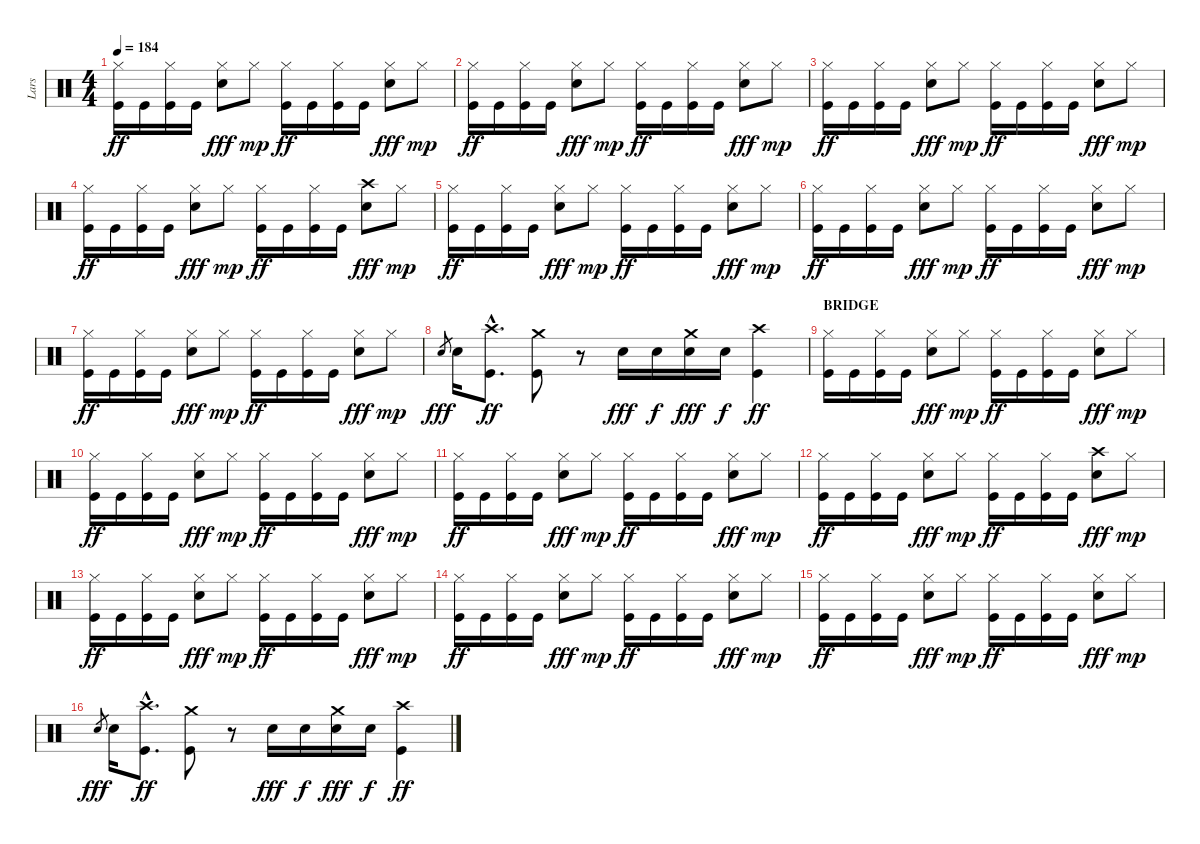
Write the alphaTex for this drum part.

\track ("Lars" "Lars") {instrument percussion}
\staff {score}
\articulation defaults
\ts (4 4)
\tempo 184
\clef neutral
\ks c
("Hi-Hat (closed)" "Kick (hit)").16{dy ff} "Kick (hit)".16 ("Hi-Hat (closed)" "Kick (hit)").16 "Kick (hit)".16 ("Hi-Hat (closed)" "Electric Snare (hit)").8{dy fff} "Hi-Hat (closed)".8{dy mp} ("Hi-Hat (closed)" "Kick (hit)").16{dy ff} "Kick (hit)".16 ("Hi-Hat (closed)" "Kick (hit)").16 "Kick (hit)".16 ("Hi-Hat (closed)" "Electric Snare (hit)").8{dy fff} "Hi-Hat (closed)".8{dy mp} |
("Hi-Hat (closed)" "Kick (hit)").16{dy ff} "Kick (hit)".16 ("Hi-Hat (closed)" "Kick (hit)").16 "Kick (hit)".16 ("Hi-Hat (closed)" "Electric Snare (hit)").8{dy fff} "Hi-Hat (closed)".8{dy mp} ("Hi-Hat (closed)" "Kick (hit)").16{dy ff} "Kick (hit)".16 ("Hi-Hat (closed)" "Kick (hit)").16 "Kick (hit)".16 ("Hi-Hat (closed)" "Electric Snare (hit)").8{dy fff} "Hi-Hat (closed)".8{dy mp} |
("Hi-Hat (closed)" "Kick (hit)").16{dy ff} "Kick (hit)".16 ("Hi-Hat (closed)" "Kick (hit)").16 "Kick (hit)".16 ("Hi-Hat (closed)" "Electric Snare (hit)").8{dy fff} "Hi-Hat (closed)".8{dy mp} ("Hi-Hat (closed)" "Kick (hit)").16{dy ff} "Kick (hit)".16 ("Hi-Hat (closed)" "Kick (hit)").16 "Kick (hit)".16 ("Hi-Hat (closed)" "Electric Snare (hit)").8{dy fff} "Hi-Hat (closed)".8{dy mp} |
("Hi-Hat (closed)" "Kick (hit)").16{dy ff} "Kick (hit)".16 ("Hi-Hat (closed)" "Kick (hit)").16 "Kick (hit)".16 ("Hi-Hat (closed)" "Electric Snare (hit)").8{dy fff} "Hi-Hat (closed)".8{dy mp} ("Hi-Hat (closed)" "Kick (hit)").16{dy ff} "Kick (hit)".16 ("Hi-Hat (closed)" "Kick (hit)").16 "Kick (hit)".16 ("Crash high (hit)" "Electric Snare (hit)").8{dy fff} "Hi-Hat (closed)".8{dy mp} |
("Hi-Hat (closed)" "Kick (hit)").16{dy ff} "Kick (hit)".16 ("Hi-Hat (closed)" "Kick (hit)").16 "Kick (hit)".16 ("Hi-Hat (closed)" "Electric Snare (hit)").8{dy fff} "Hi-Hat (closed)".8{dy mp} ("Hi-Hat (closed)" "Kick (hit)").16{dy ff} "Kick (hit)".16 ("Hi-Hat (closed)" "Kick (hit)").16 "Kick (hit)".16 ("Hi-Hat (closed)" "Electric Snare (hit)").8{dy fff} "Hi-Hat (closed)".8{dy mp} |
("Hi-Hat (closed)" "Kick (hit)").16{dy ff} "Kick (hit)".16 ("Hi-Hat (closed)" "Kick (hit)").16 "Kick (hit)".16 ("Hi-Hat (closed)" "Electric Snare (hit)").8{dy fff} "Hi-Hat (closed)".8{dy mp} ("Hi-Hat (closed)" "Kick (hit)").16{dy ff} "Kick (hit)".16 ("Hi-Hat (closed)" "Kick (hit)").16 "Kick (hit)".16 ("Hi-Hat (closed)" "Electric Snare (hit)").8{dy fff} "Hi-Hat (closed)".8{dy mp} |
("Hi-Hat (closed)" "Kick (hit)").16{dy ff} "Kick (hit)".16 ("Hi-Hat (closed)" "Kick (hit)").16 "Kick (hit)".16 ("Hi-Hat (closed)" "Electric Snare (hit)").8{dy fff} "Hi-Hat (closed)".8{dy mp} ("Hi-Hat (closed)" "Kick (hit)").16{dy ff} "Kick (hit)".16 ("Hi-Hat (closed)" "Kick (hit)").16 "Kick (hit)".16 ("Hi-Hat (closed)" "Electric Snare (hit)").8{dy fff} "Hi-Hat (closed)".8{dy mp} |
"Electric Snare (hit)".8{gr dy fff} "Electric Snare (hit)".16 ("Crash high (hit)"{hac} "Kick (hit)"{hac}).8{d dy ff} ("Crash medium (hit)" "Kick (hit)").8 r.8 "Electric Snare (hit)".16{dy fff} "Electric Snare (hit)".16{dy f} ("Crash medium (hit)" "Electric Snare (hit)").16{dy fff} "Electric Snare (hit)".16{dy f} ("Crash high (hit)" "Kick (hit)").4{dy ff} |
\section ("" "BRIDGE")
("Hi-Hat (closed)" "Kick (hit)").16 "Kick (hit)".16 ("Hi-Hat (closed)" "Kick (hit)").16 "Kick (hit)".16 ("Hi-Hat (closed)" "Electric Snare (hit)").8{dy fff} "Hi-Hat (closed)".8{dy mp} ("Hi-Hat (closed)" "Kick (hit)").16{dy ff} "Kick (hit)".16 ("Hi-Hat (closed)" "Kick (hit)").16 "Kick (hit)".16 ("Hi-Hat (closed)" "Electric Snare (hit)").8{dy fff} "Hi-Hat (closed)".8{dy mp} |
("Hi-Hat (closed)" "Kick (hit)").16{dy ff} "Kick (hit)".16 ("Hi-Hat (closed)" "Kick (hit)").16 "Kick (hit)".16 ("Hi-Hat (closed)" "Electric Snare (hit)").8{dy fff} "Hi-Hat (closed)".8{dy mp} ("Hi-Hat (closed)" "Kick (hit)").16{dy ff} "Kick (hit)".16 ("Hi-Hat (closed)" "Kick (hit)").16 "Kick (hit)".16 ("Hi-Hat (closed)" "Electric Snare (hit)").8{dy fff} "Hi-Hat (closed)".8{dy mp} |
("Hi-Hat (closed)" "Kick (hit)").16{dy ff} "Kick (hit)".16 ("Hi-Hat (closed)" "Kick (hit)").16 "Kick (hit)".16 ("Hi-Hat (closed)" "Electric Snare (hit)").8{dy fff} "Hi-Hat (closed)".8{dy mp} ("Hi-Hat (closed)" "Kick (hit)").16{dy ff} "Kick (hit)".16 ("Hi-Hat (closed)" "Kick (hit)").16 "Kick (hit)".16 ("Hi-Hat (closed)" "Electric Snare (hit)").8{dy fff} "Hi-Hat (closed)".8{dy mp} |
("Hi-Hat (closed)" "Kick (hit)").16{dy ff} "Kick (hit)".16 ("Hi-Hat (closed)" "Kick (hit)").16 "Kick (hit)".16 ("Hi-Hat (closed)" "Electric Snare (hit)").8{dy fff} "Hi-Hat (closed)".8{dy mp} ("Hi-Hat (closed)" "Kick (hit)").16{dy ff} "Kick (hit)".16 ("Hi-Hat (closed)" "Kick (hit)").16 "Kick (hit)".16 ("Crash high (hit)" "Electric Snare (hit)").8{dy fff} "Hi-Hat (closed)".8{dy mp} |
("Hi-Hat (closed)" "Kick (hit)").16{dy ff} "Kick (hit)".16 ("Hi-Hat (closed)" "Kick (hit)").16 "Kick (hit)".16 ("Hi-Hat (closed)" "Electric Snare (hit)").8{dy fff} "Hi-Hat (closed)".8{dy mp} ("Hi-Hat (closed)" "Kick (hit)").16{dy ff} "Kick (hit)".16 ("Hi-Hat (closed)" "Kick (hit)").16 "Kick (hit)".16 ("Hi-Hat (closed)" "Electric Snare (hit)").8{dy fff} "Hi-Hat (closed)".8{dy mp} |
("Hi-Hat (closed)" "Kick (hit)").16{dy ff} "Kick (hit)".16 ("Hi-Hat (closed)" "Kick (hit)").16 "Kick (hit)".16 ("Hi-Hat (closed)" "Electric Snare (hit)").8{dy fff} "Hi-Hat (closed)".8{dy mp} ("Hi-Hat (closed)" "Kick (hit)").16{dy ff} "Kick (hit)".16 ("Hi-Hat (closed)" "Kick (hit)").16 "Kick (hit)".16 ("Hi-Hat (closed)" "Electric Snare (hit)").8{dy fff} "Hi-Hat (closed)".8{dy mp} |
("Hi-Hat (closed)" "Kick (hit)").16{dy ff} "Kick (hit)".16 ("Hi-Hat (closed)" "Kick (hit)").16 "Kick (hit)".16 ("Hi-Hat (closed)" "Electric Snare (hit)").8{dy fff} "Hi-Hat (closed)".8{dy mp} ("Hi-Hat (closed)" "Kick (hit)").16{dy ff} "Kick (hit)".16 ("Hi-Hat (closed)" "Kick (hit)").16 "Kick (hit)".16 ("Hi-Hat (closed)" "Electric Snare (hit)").8{dy fff} "Hi-Hat (closed)".8{dy mp} |
"Electric Snare (hit)".8{gr dy fff} "Electric Snare (hit)".16 ("Crash high (hit)"{hac} "Kick (hit)"{hac}).8{d dy ff} ("Crash medium (hit)" "Kick (hit)").8 r.8 "Electric Snare (hit)".16{dy fff} "Electric Snare (hit)".16{dy f} ("Crash medium (hit)" "Electric Snare (hit)").16{dy fff} "Electric Snare (hit)".16{dy f} ("Crash high (hit)" "Kick (hit)").4{dy ff}
